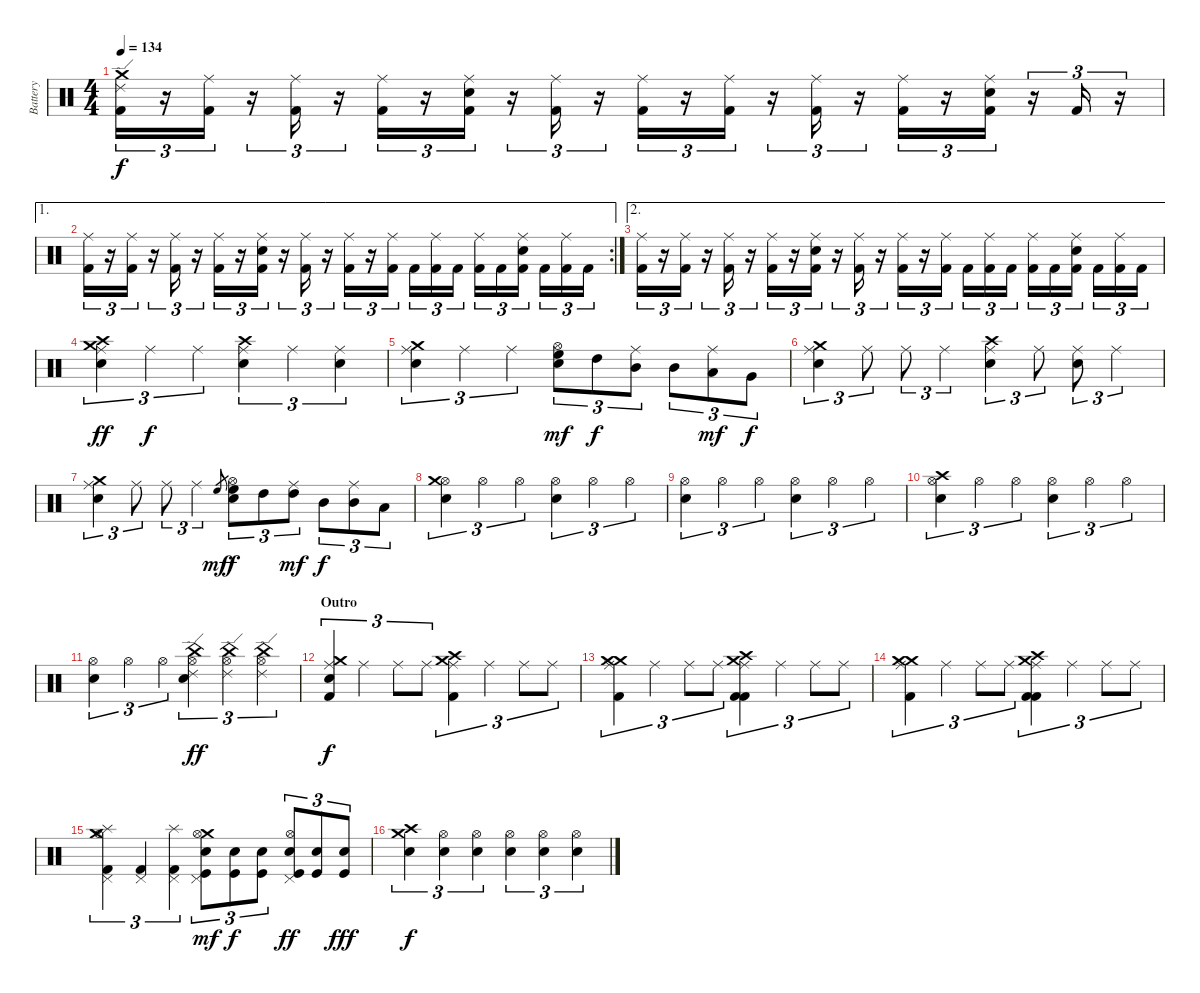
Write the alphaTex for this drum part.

\track ("Battery" "Battery") {instrument percussion}
\staff {score}
\articulation defaults
\ts (4 4)
\tempo 134
\clef neutral
\ks c
("Kick (hit) 2" "Ride (edge) 2" "Crash medium (hit)").16{tu (3 2) dy f} r.16{tu (3 2)} ("Kick (hit) 2" "Ride (middle)").16{tu (3 2)} r.16{tu (3 2)} ("Kick (hit) 2" "Ride (middle)").16{tu (3 2)} r.16{tu (3 2)} ("Kick (hit) 2" "Ride (middle)").16{tu (3 2)} r.16{tu (3 2)} ("Kick (hit) 2" "Electric Snare (hit)" "Ride (middle)").16{tu (3 2)} r.16{tu (3 2)} ("Kick (hit) 2" "Ride (middle)").16{tu (3 2)} r.16{tu (3 2)} ("Kick (hit) 2" "Ride (middle)").16{tu (3 2)} r.16{tu (3 2)} ("Kick (hit) 2" "Ride (middle)").16{tu (3 2)} r.16{tu (3 2)} ("Kick (hit) 2" "Ride (middle)").16{tu (3 2)} r.16{tu (3 2)} ("Kick (hit) 2" "Ride (middle)").16{tu (3 2)} r.16{tu (3 2)} ("Kick (hit) 2" "Electric Snare (hit)" "Ride (middle)").16{tu (3 2)} r.16{tu (3 2)} "Kick (hit) 2".16{tu (3 2)} r.16{tu (3 2)} |
\ae 1
\rc 2
("Kick (hit) 2" "Ride (middle)").16{tu (3 2)} r.16{tu (3 2)} ("Kick (hit) 2" "Ride (middle)").16{tu (3 2)} r.16{tu (3 2)} ("Kick (hit) 2" "Ride (middle)").16{tu (3 2)} r.16{tu (3 2)} ("Kick (hit) 2" "Ride (middle)").16{tu (3 2)} r.16{tu (3 2)} ("Kick (hit) 2" "Electric Snare (hit)" "Ride (middle)").16{tu (3 2)} r.16{tu (3 2)} ("Kick (hit) 2" "Ride (middle)").16{tu (3 2)} r.16{tu (3 2)} ("Kick (hit) 2" "Ride (middle)").16{tu (3 2)} r.16{tu (3 2)} ("Kick (hit) 2" "Ride (middle)").16{tu (3 2)} "Kick (hit) 2".16{tu (3 2)} ("Kick (hit) 2" "Ride (middle)").16{tu (3 2)} "Kick (hit) 2".16{tu (3 2)} ("Kick (hit) 2" "Ride (middle)").16{tu (3 2)} "Kick (hit) 2".16{tu (3 2)} ("Kick (hit) 2" "Electric Snare (hit)" "Ride (middle)").16{tu (3 2)} "Kick (hit) 2".16{tu (3 2)} ("Kick (hit) 2" "Ride (middle)").16{tu (3 2)} "Kick (hit) 2".16{tu (3 2)} |
\ae 2
("Kick (hit) 2" "Ride (middle)").16{tu (3 2)} r.16{tu (3 2)} ("Kick (hit) 2" "Ride (middle)").16{tu (3 2)} r.16{tu (3 2)} ("Kick (hit) 2" "Ride (middle)").16{tu (3 2)} r.16{tu (3 2)} ("Kick (hit) 2" "Ride (middle)").16{tu (3 2)} r.16{tu (3 2)} ("Kick (hit) 2" "Electric Snare (hit)" "Ride (middle)").16{tu (3 2)} r.16{tu (3 2)} ("Kick (hit) 2" "Ride (middle)").16{tu (3 2)} r.16{tu (3 2)} ("Kick (hit) 2" "Ride (middle)").16{tu (3 2)} r.16{tu (3 2)} ("Kick (hit) 2" "Ride (middle)").16{tu (3 2)} "Kick (hit) 2".16{tu (3 2)} ("Kick (hit) 2" "Ride (middle)").16{tu (3 2)} "Kick (hit) 2".16{tu (3 2)} ("Kick (hit) 2" "Ride (middle)").16{tu (3 2)} "Kick (hit) 2".16{tu (3 2)} ("Kick (hit) 2" "Electric Snare (hit)" "Ride (middle)").16{tu (3 2)} "Kick (hit) 2".16{tu (3 2)} ("Kick (hit) 2" "Ride (middle)").16{tu (3 2)} "Kick (hit) 2".16{tu (3 2)} |
("Crash high (hit)" "Ride (middle)" "Electric Snare (hit)" "Crash medium (hit)").4{tu (3 2) dy ff} "Ride (middle)".4{tu (3 2) dy f} "Ride (middle)".4{tu (3 2)} ("Ride (middle)" "Electric Snare (hit)" "Crash high (hit)").4{tu (3 2)} "Ride (middle)".4{tu (3 2)} ("Ride (middle)" "Electric Snare (hit)").4{tu (3 2)} |
("Ride (middle)" "Electric Snare (hit)" "Crash medium (hit)").4{tu (3 2)} "Ride (middle)".4{tu (3 2)} "Ride (middle)".4{tu (3 2)} ("Hi-Hat (open)" "Electric Snare (hit)" "High Floor Tom (hit)").8{tu (3 2) dy mf} "High Tom (hit)".8{tu (3 2) dy f} ("Ride (middle)" "Mid Tom (hit)").8{tu (3 2)} "Mid Tom (hit)".8{tu (3 2)} ("Ride (middle)" "Low Tom (hit)").8{tu (3 2) dy mf} "Very Low Tom (hit)".8{tu (3 2) dy f} |
("Ride (middle)" "Electric Snare (hit)" "Crash medium (hit)").4{tu (3 2)} "Ride (middle)".8{tu (3 2)} "Ride (middle)".8{tu (3 2)} "Ride (middle)".4{tu (3 2)} ("Ride (middle)" "Electric Snare (hit)" "Crash high (hit)").4{tu (3 2)} "Ride (middle)".8{tu (3 2)} ("Ride (middle)" "Electric Snare (hit)").8{tu (3 2)} "Ride (middle)".4{tu (3 2)} |
("Ride (middle)" "Electric Snare (hit)" "Crash medium (hit)").4{tu (3 2)} "Ride (middle)".8{tu (3 2)} "Ride (middle)".8{tu (3 2)} "Ride (middle)".4{tu (3 2)} "High Floor Tom (hit)".8{gr dy mf} ("Hi-Hat (open)" "Electric Snare (hit)" "High Floor Tom (hit)").8{tu (3 2) dy f} "High Tom (hit)".8{tu (3 2)} ("Ride (middle)" "High Tom (hit)").8{tu (3 2) dy mf} "Mid Tom (hit)".8{tu (3 2) dy f} ("Ride (middle)" "Mid Tom (hit)").8{tu (3 2)} "Low Tom (hit)".8{tu (3 2)} |
("Hi-Hat (open)" "Electric Snare (hit)" "Crash medium (hit)").4{tu (3 2)} "Hi-Hat (open)".4{tu (3 2)} "Hi-Hat (open)".4{tu (3 2)} ("Hi-Hat (open)" "Electric Snare (hit)").4{tu (3 2)} "Hi-Hat (open)".4{tu (3 2)} "Hi-Hat (open)".4{tu (3 2)} |
("Hi-Hat (open)" "Electric Snare (hit)").4{tu (3 2)} "Hi-Hat (open)".4{tu (3 2)} "Hi-Hat (open)".4{tu (3 2)} ("Hi-Hat (open)" "Electric Snare (hit)").4{tu (3 2)} "Hi-Hat (open)".4{tu (3 2)} "Hi-Hat (open)".4{tu (3 2)} |
("Hi-Hat (open)" "Crash high (hit)" "Electric Snare (hit)").4{tu (3 2)} "Hi-Hat (open)".4{tu (3 2)} "Hi-Hat (open)".4{tu (3 2)} ("Hi-Hat (open)" "Electric Snare (hit)").4{tu (3 2)} "Hi-Hat (open)".4{tu (3 2)} "Hi-Hat (open)".4{tu (3 2)} |
("Hi-Hat (open)" "Electric Snare (hit)").4{tu (3 2)} "Hi-Hat (open)".4{tu (3 2)} "Hi-Hat (open)".4{tu (3 2)} ("Ride (edge) 2" "Hi-Hat (open)" "China (hit)" "Electric Snare (hit)").4{tu (3 2) dy ff} ("Ride (edge) 2" "Hi-Hat (open)" "China (hit)").4{tu (3 2)} ("Ride (edge) 2" "Hi-Hat (open)" "China (hit)").4{tu (3 2)} |
\section ("" "Outro")
("Kick (hit) 2" "Ride (middle)" "Electric Snare (hit)" "Crash medium (hit)").4{tu (3 2) dy f} "Ride (middle)".4{tu (3 2)} "Ride (middle)".8{tu (3 2)} "Ride (middle)".8{tu (3 2)} ("Crash medium (hit)" "Ride (middle)" "Kick (hit) 2" "Crash high (hit)").4{tu (3 2) balance 10} "Ride (middle)".4{tu (3 2)} "Ride (middle)".8{tu (3 2)} "Ride (middle)".8{tu (3 2)} |
("Crash medium (hit)" "Ride (middle)" "Kick (hit) 2" "Crash medium (hit)").4{tu (3 2)} "Ride (middle)".4{tu (3 2)} "Ride (middle)".8{tu (3 2)} "Ride (middle)".8{tu (3 2)} ("Crash medium (hit)" "Ride (middle)" "Crash high (hit)" "Kick (hit) 2" "Kick (hit) 2").4{tu (3 2)} "Ride (middle)".4{tu (3 2)} "Ride (middle)".8{tu (3 2)} "Ride (middle)".8{tu (3 2)} |
("Crash medium (hit)" "Ride (middle)" "Kick (hit) 2" "Crash medium (hit)").4{tu (3 2)} "Ride (middle)".4{tu (3 2)} "Ride (middle)".8{tu (3 2)} "Ride (middle)".8{tu (3 2)} ("Crash medium (hit)" "Ride (middle)" "Crash high (hit)" "Kick (hit) 2" "Kick (hit) 2").4{tu (3 2)} "Ride (middle)".4{tu (3 2)} "Ride (middle)".8{tu (3 2)} "Ride (middle)".8{tu (3 2)} |
("Crash medium (hit)" "Pedal Hi-Hat (hit)" "Hi-Hat (open)" "Kick (hit) 2" "Splash (hit)").4{tu (3 2)} ("Pedal Hi-Hat (hit)" "Kick (hit) 2").4{tu (3 2)} ("Pedal Hi-Hat (hit)" "Kick (hit) 2" "Splash (hit)").4{tu (3 2)} ("Crash medium (hit)" "Pedal Hi-Hat (hit)" "Kick (hit)" "Hi-Hat (open)" "Electric Snare (hit)").8{tu (3 2) dy mf} ("Kick (hit)" "Electric Snare (hit)").8{tu (3 2) dy f} ("Kick (hit)" "Electric Snare (hit)").8{tu (3 2)} ("Pedal Hi-Hat (hit)" "Kick (hit)" "Hi-Hat (open)" "Electric Snare (hit)").8{tu (3 2) dy ff} ("Kick (hit)" "Electric Snare (hit)").8{tu (3 2)} ("Kick (hit)" "Electric Snare (hit)").8{tu (3 2) dy fff} |
("Electric Snare (hit)" "Crash medium (hit)" "Crash high (hit)").4{tu (3 2) dy f} ("Electric Snare (hit)" "Hi-Hat (open)").4{tu (3 2)} ("Electric Snare (hit)" "Hi-Hat (open)").4{tu (3 2)} ("Electric Snare (hit)" "Hi-Hat (open)").4{tu (3 2)} ("Electric Snare (hit)" "Hi-Hat (open)").4{tu (3 2)} ("Electric Snare (hit)" "Hi-Hat (open)").4{tu (3 2)}
